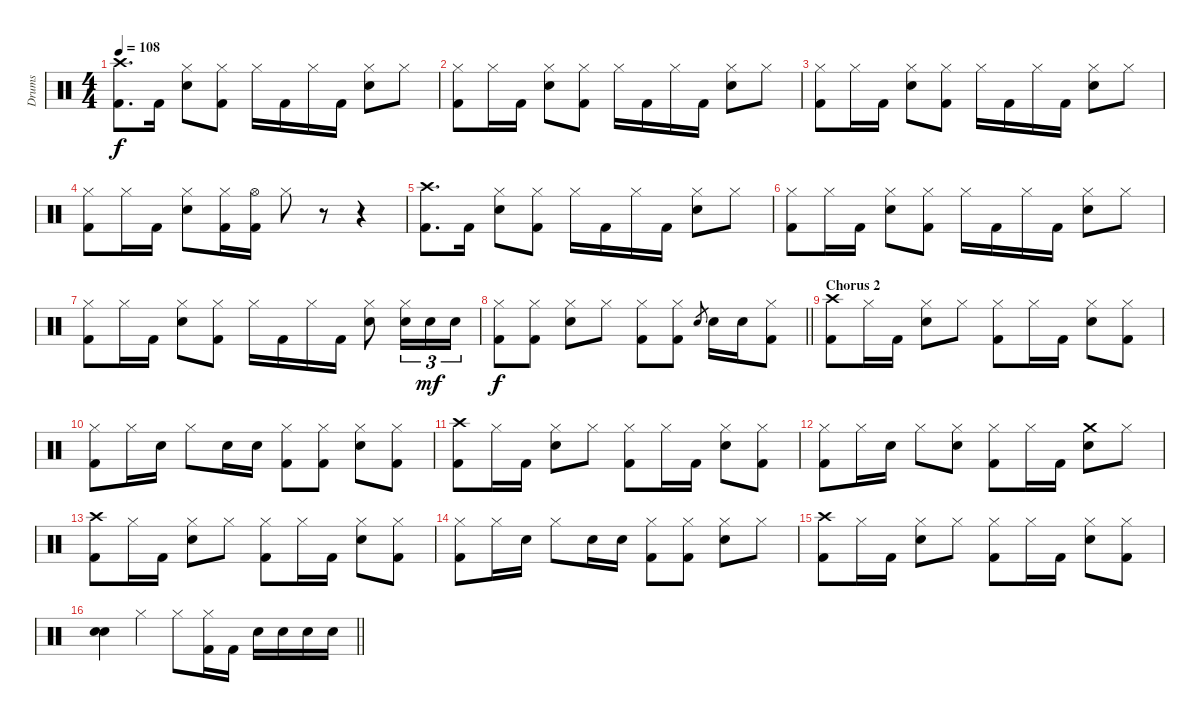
\track ("Drums" "Drums") {instrument percussion}
\staff {score}
\articulation defaults
\ts (4 4)
\tempo 108
\clef neutral
\ks c
("Crash high (hit)" "Kick (hit) 2").8{d dy f} "Kick (hit) 2".16 ("Hi-Hat (closed)" "Electric Snare (hit)").8 ("Hi-Hat (closed)" "Kick (hit) 2").8 "Hi-Hat (closed)".16 "Kick (hit) 2".16 "Hi-Hat (closed)".16 "Kick (hit) 2".16 ("Hi-Hat (closed)" "Electric Snare (hit)").8 "Hi-Hat (closed)".8 |
("Hi-Hat (closed)" "Kick (hit) 2").8 "Hi-Hat (closed)".16 "Kick (hit) 2".16 ("Hi-Hat (closed)" "Electric Snare (hit)").8 ("Hi-Hat (closed)" "Kick (hit) 2").8 "Hi-Hat (closed)".16 "Kick (hit) 2".16 "Hi-Hat (closed)".16 "Kick (hit) 2".16 ("Hi-Hat (closed)" "Electric Snare (hit)").8 "Hi-Hat (closed)".8 |
("Hi-Hat (closed)" "Kick (hit) 2").8 "Hi-Hat (closed)".16 "Kick (hit) 2".16 ("Hi-Hat (closed)" "Electric Snare (hit)").8 ("Hi-Hat (closed)" "Kick (hit) 2").8 "Hi-Hat (closed)".16 "Kick (hit) 2".16 "Hi-Hat (closed)".16 "Kick (hit) 2".16 ("Hi-Hat (closed)" "Electric Snare (hit)").8 "Hi-Hat (closed)".8 |
("Hi-Hat (closed)" "Kick (hit) 2").8 "Hi-Hat (closed)".16 "Kick (hit) 2".16 ("Hi-Hat (closed)" "Electric Snare (hit)").8 ("Hi-Hat (closed)" "Kick (hit) 2").16 ("Hi-Hat (open)" "Kick (hit) 2").16 "Hi-Hat (closed)".8 r.8 r.4 |
("Crash high (hit)" "Kick (hit) 2").8{d} "Kick (hit) 2".16 ("Hi-Hat (closed)" "Electric Snare (hit)").8 ("Hi-Hat (closed)" "Kick (hit) 2").8 "Hi-Hat (closed)".16 "Kick (hit) 2".16 "Hi-Hat (closed)".16 "Kick (hit) 2".16 ("Hi-Hat (closed)" "Electric Snare (hit)").8 "Hi-Hat (closed)".8 |
("Hi-Hat (closed)" "Kick (hit) 2").8 "Hi-Hat (closed)".16 "Kick (hit) 2".16 ("Hi-Hat (closed)" "Electric Snare (hit)").8 ("Hi-Hat (closed)" "Kick (hit) 2").8 "Hi-Hat (closed)".16 "Kick (hit) 2".16 "Hi-Hat (closed)".16 "Kick (hit) 2".16 ("Hi-Hat (closed)" "Electric Snare (hit)").8 "Hi-Hat (closed)".8 |
("Hi-Hat (closed)" "Kick (hit) 2").8 "Hi-Hat (closed)".16 "Kick (hit) 2".16 ("Hi-Hat (closed)" "Electric Snare (hit)").8 ("Hi-Hat (closed)" "Kick (hit) 2").8 "Hi-Hat (closed)".16 "Kick (hit) 2".16 "Hi-Hat (closed)".16 "Kick (hit) 2".16 ("Hi-Hat (closed)" "Electric Snare (hit)").8 ("Hi-Hat (closed)" "Electric Snare (hit)").16{tu (3 2)} "Electric Snare (hit)".16{tu (3 2) dy mf} "Electric Snare (hit)".16{tu (3 2)} |
\barLineRight lightlight
("Hi-Hat (closed)" "Kick (hit) 2").8{dy f} ("Hi-Hat (closed)" "Kick (hit) 2").8 ("Hi-Hat (closed)" "Electric Snare (hit)").8 "Hi-Hat (closed)".8 ("Hi-Hat (closed)" "Kick (hit) 2").8 ("Hi-Hat (closed)" "Kick (hit) 2").8 "Electric Snare (hit)".8{gr} "Electric Snare (hit)".16 "Electric Snare (hit)".16 ("Hi-Hat (closed)" "Kick (hit) 2").8 |
\section ("" "Chorus 2")
("Crash high (hit)" "Kick (hit) 2").8 "Hi-Hat (closed)".16 "Kick (hit) 2".16 ("Hi-Hat (closed)" "Electric Snare (hit)").8 "Hi-Hat (closed)".8 ("Hi-Hat (closed)" "Kick (hit) 2").8 "Hi-Hat (closed)".16 "Kick (hit) 2".16 ("Hi-Hat (closed)" "Electric Snare (hit)").8 ("Hi-Hat (closed)" "Kick (hit) 2").8 |
("Hi-Hat (closed)" "Kick (hit) 2").8 "Hi-Hat (closed)".16 "Electric Snare (hit)".16 "Hi-Hat (closed)".8 "Electric Snare (hit)".16 "Electric Snare (hit)".16 ("Hi-Hat (closed)" "Kick (hit) 2").8 ("Hi-Hat (closed)" "Kick (hit) 2").8 ("Hi-Hat (closed)" "Electric Snare (hit)").8 ("Hi-Hat (closed)" "Kick (hit) 2").8 |
("Crash high (hit)" "Kick (hit) 2").8 "Hi-Hat (closed)".16 "Kick (hit) 2".16 ("Hi-Hat (closed)" "Electric Snare (hit)").8 "Hi-Hat (closed)".8 ("Hi-Hat (closed)" "Kick (hit) 2").8 "Hi-Hat (closed)".16 "Kick (hit) 2".16 ("Hi-Hat (closed)" "Electric Snare (hit)").8 ("Hi-Hat (closed)" "Kick (hit) 2").8 |
("Hi-Hat (closed)" "Kick (hit) 2").8 "Hi-Hat (closed)".16 "Electric Snare (hit)".16 "Hi-Hat (closed)".8 ("Hi-Hat (closed)" "Electric Snare (hit)").8 ("Hi-Hat (closed)" "Kick (hit) 2").8 "Hi-Hat (closed)".16 "Kick (hit) 2".16 ("Crash medium (hit)" "Electric Snare (hit)").8 "Hi-Hat (closed)".8 |
("Crash high (hit)" "Kick (hit) 2").8 "Hi-Hat (closed)".16 "Kick (hit) 2".16 ("Hi-Hat (closed)" "Electric Snare (hit)").8 "Hi-Hat (closed)".8 ("Hi-Hat (closed)" "Kick (hit) 2").8 "Hi-Hat (closed)".16 "Kick (hit) 2".16 ("Hi-Hat (closed)" "Electric Snare (hit)").8 ("Hi-Hat (closed)" "Kick (hit) 2").8 |
("Hi-Hat (closed)" "Kick (hit) 2").8 "Hi-Hat (closed)".16 "Electric Snare (hit)".16 "Hi-Hat (closed)".8 "Electric Snare (hit)".16 "Electric Snare (hit)".16 ("Hi-Hat (closed)" "Kick (hit) 2").8 ("Hi-Hat (closed)" "Kick (hit) 2").8 ("Hi-Hat (closed)" "Electric Snare (hit)").8 "Hi-Hat (closed)".8 |
("Crash high (hit)" "Kick (hit) 2").8 "Hi-Hat (closed)".16 "Kick (hit) 2".16 ("Hi-Hat (closed)" "Electric Snare (hit)").8 "Hi-Hat (closed)".8 ("Hi-Hat (closed)" "Kick (hit) 2").8 "Hi-Hat (closed)".16 "Kick (hit) 2".16 ("Hi-Hat (closed)" "Electric Snare (hit)").8 ("Hi-Hat (closed)" "Kick (hit) 2").8 |
\barLineRight lightlight
("Electric Snare (hit)" "Electric Snare (hit)").4 "Hi-Hat (closed)".4 "Hi-Hat (closed)".8 ("Hi-Hat (closed)" "Kick (hit) 2").16 "Kick (hit) 2".16 "Electric Snare (hit)".16 "Electric Snare (hit)".16 "Electric Snare (hit)".16 "Electric Snare (hit)".16
